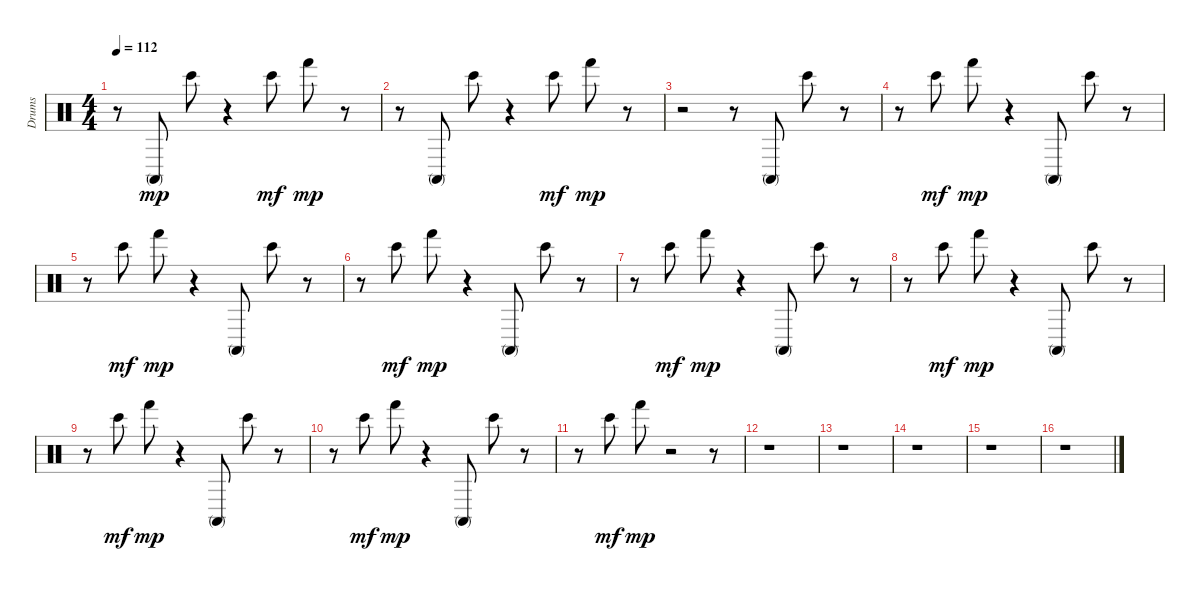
\track ("Drums" "Drums") {instrument percussion}
\staff {score}
\articulation defaults
\ts (4 4)
\tempo 112
\clef neutral
\ks c
r.8{dy mp} "Conga high (mute)".8 "Bongo High (hit)".8 r.4 "Bongo High (hit)".8{dy mf} "Hand (hit)".8{dy mp} r.8 |
r.8 "Conga high (mute)".8 "Bongo High (hit)".8 r.4 "Bongo High (hit)".8{dy mf} "Hand (hit)".8{dy mp} r.8 |
r.2 r.8 "Conga high (mute)".8 "Bongo High (hit)".8 r.8 |
r.8 "Bongo High (hit)".8{dy mf} "Hand (hit)".8{dy mp} r.4 "Conga high (mute)".8 "Bongo High (hit)".8 r.8 |
r.8 "Bongo High (hit)".8{dy mf} "Hand (hit)".8{dy mp} r.4 "Conga high (mute)".8 "Bongo High (hit)".8 r.8 |
r.8 "Bongo High (hit)".8{dy mf} "Hand (hit)".8{dy mp} r.4 "Conga high (mute)".8 "Bongo High (hit)".8 r.8 |
r.8 "Bongo High (hit)".8{dy mf} "Hand (hit)".8{dy mp} r.4 "Conga high (mute)".8 "Bongo High (hit)".8 r.8 |
r.8 "Bongo High (hit)".8{dy mf} "Hand (hit)".8{dy mp} r.4 "Conga high (mute)".8 "Bongo High (hit)".8 r.8 |
r.8 "Bongo High (hit)".8{dy mf} "Hand (hit)".8{dy mp} r.4 "Conga high (mute)".8 "Bongo High (hit)".8 r.8 |
r.8 "Bongo High (hit)".8{dy mf} "Hand (hit)".8{dy mp} r.4 "Conga high (mute)".8 "Bongo High (hit)".8 r.8 |
r.8 "Bongo High (hit)".8{dy mf} "Hand (hit)".8{dy mp} r.2 r.8 |
r.1 |
r.1 |
r.1 |
r.1 |
r.1
